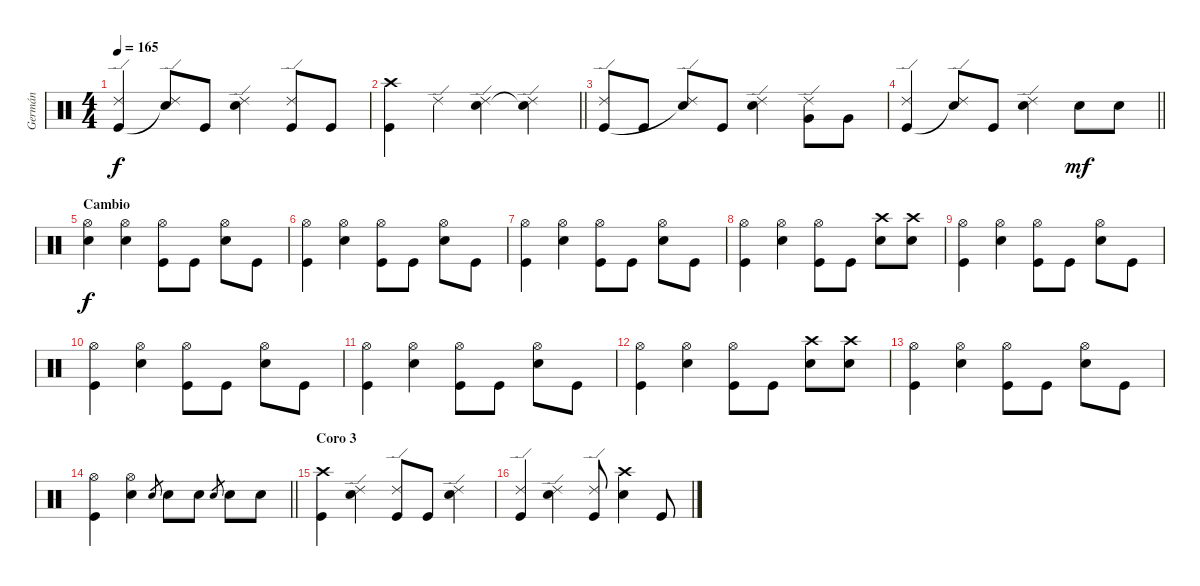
\track ("Germán" "Germán") {instrument percussion}
\staff {score}
\articulation defaults
\ts (4 4)
\tempo 165
\clef neutral
\ks c
("Ride (edge) 2" "Kick (hit)").4{dy f} ("Ride (edge) 2" "Snare (hit)"{t}).8 "Kick (hit)".8 ("Ride (edge) 2" "Electric Snare (hit)").4 ("Ride (edge) 2" "Kick (hit)").8 "Kick (hit)".8 |
\barLineRight lightlight
("Crash high (hit)" "Kick (hit)").4 "Ride (edge) 2".4 ("Ride (edge) 2" "Electric Snare (hit)").4 ("Ride (edge) 2" "Snare (hit)"{t}).4 |
("Ride (edge) 2" "Kick (hit)").8 "Kick (hit)".8 ("Ride (edge) 2" "Snare (hit)"{t}).8 "Kick (hit)".8 ("Ride (edge) 2" "Electric Snare (hit)").4 ("Ride (edge) 2" "Very Low Tom (hit)").8 "Very Low Tom (hit)".8 |
\barLineRight lightlight
("Ride (edge) 2" "Kick (hit)").4 ("Ride (edge) 2" "Snare (hit)"{t}).8 "Kick (hit)".8 ("Ride (edge) 2" "Electric Snare (hit)").4 "Electric Snare (hit)".8{dy mf} "Electric Snare (hit)".8 |
\section ("" "Cambio")
("Hi-Hat (open)" "Electric Snare (hit)").4{dy f} ("Hi-Hat (open)" "Electric Snare (hit)").4 ("Hi-Hat (open)" "Kick (hit)").8 "Kick (hit)".8 ("Hi-Hat (open)" "Electric Snare (hit)").8 "Kick (hit)".8 |
("Hi-Hat (open)" "Kick (hit)").4 ("Hi-Hat (open)" "Electric Snare (hit)").4 ("Hi-Hat (open)" "Kick (hit)").8 "Kick (hit)".8 ("Hi-Hat (open)" "Electric Snare (hit)").8 "Kick (hit)".8 |
("Hi-Hat (open)" "Kick (hit)").4 ("Hi-Hat (open)" "Electric Snare (hit)").4 ("Hi-Hat (open)" "Kick (hit)").8 "Kick (hit)".8 ("Hi-Hat (open)" "Electric Snare (hit)").8 "Kick (hit)".8 |
("Hi-Hat (open)" "Kick (hit)").4 ("Hi-Hat (open)" "Electric Snare (hit)").4 ("Hi-Hat (open)" "Kick (hit)").8 "Kick (hit)".8 ("Crash high (hit)" "Electric Snare (hit)").8 ("Crash high (hit)" "Electric Snare (hit)").8 |
("Hi-Hat (open)" "Kick (hit)").4 ("Hi-Hat (open)" "Electric Snare (hit)").4 ("Hi-Hat (open)" "Kick (hit)").8 "Kick (hit)".8 ("Hi-Hat (open)" "Electric Snare (hit)").8 "Kick (hit)".8 |
("Hi-Hat (open)" "Kick (hit)").4 ("Hi-Hat (open)" "Electric Snare (hit)").4 ("Hi-Hat (open)" "Kick (hit)").8 "Kick (hit)".8 ("Hi-Hat (open)" "Electric Snare (hit)").8 "Kick (hit)".8 |
("Hi-Hat (open)" "Kick (hit)").4 ("Hi-Hat (open)" "Electric Snare (hit)").4 ("Hi-Hat (open)" "Kick (hit)").8 "Kick (hit)".8 ("Hi-Hat (open)" "Electric Snare (hit)").8 "Kick (hit)".8 |
("Hi-Hat (open)" "Kick (hit)").4 ("Hi-Hat (open)" "Electric Snare (hit)").4 ("Hi-Hat (open)" "Kick (hit)").8 "Kick (hit)".8 ("Crash high (hit)" "Electric Snare (hit)").8 ("Crash high (hit)" "Electric Snare (hit)").8 |
("Hi-Hat (open)" "Kick (hit)").4 ("Hi-Hat (open)" "Electric Snare (hit)").4 ("Hi-Hat (open)" "Kick (hit)").8 "Kick (hit)".8 ("Hi-Hat (open)" "Electric Snare (hit)").8 "Kick (hit)".8 |
\barLineRight lightlight
("Hi-Hat (open)" "Kick (hit)").4 ("Hi-Hat (open)" "Electric Snare (hit)").4 "Electric Snare (hit)".8{gr} "Electric Snare (hit)".8 "Electric Snare (hit)".8 "Electric Snare (hit)".8{gr} "Electric Snare (hit)".8 "Electric Snare (hit)".8 |
\section ("" "Coro 3")
("Crash high (hit)" "Kick (hit)").4 ("Ride (edge) 2" "Electric Snare (hit)").4 ("Ride (edge) 2" "Kick (hit)").8 "Kick (hit)".8 ("Ride (edge) 2" "Electric Snare (hit)").4 |
("Ride (edge) 2" "Kick (hit)").4 ("Ride (edge) 2" "Electric Snare (hit)").4 ("Ride (edge) 2" "Kick (hit)").8 ("Crash high (hit)" "Electric Snare (hit)").4 "Kick (hit)".8
